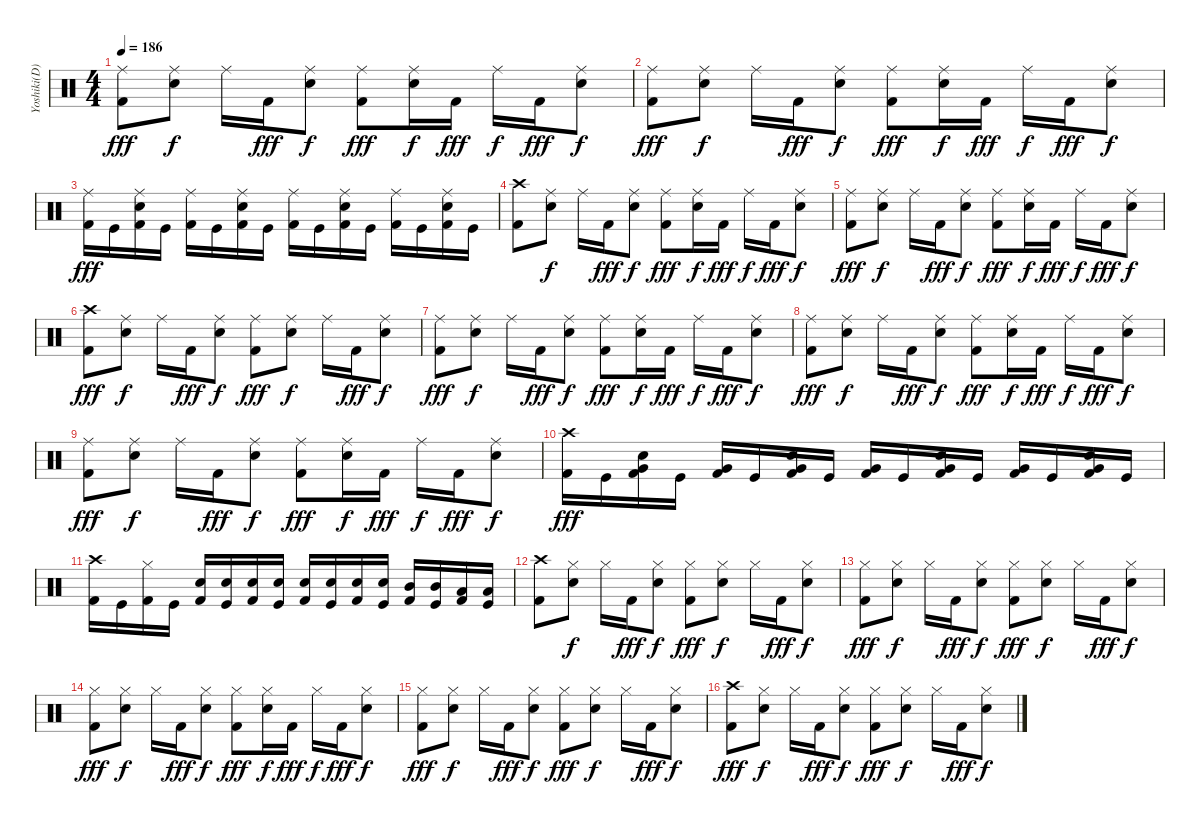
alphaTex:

\track ("Yoshiki(D)" "Yoshiki(D)") {instrument percussion}
\staff {score}
\articulation defaults
\ts (4 4)
\tempo 186
\clef neutral
\ks c
("Ride (middle)" "Kick (hit) 2").8{dy fff} ("Ride (middle)" "Electric Snare (hit)").8{dy f} "Ride (middle)".16 "Kick (hit) 2".16{dy fff} ("Ride (middle)" "Electric Snare (hit)").8{dy f} ("Ride (middle)" "Kick (hit) 2").8{dy fff} ("Ride (middle)" "Electric Snare (hit)").16{dy f} "Kick (hit) 2".16{dy fff} "Ride (middle)".16{dy f} "Kick (hit) 2".16{dy fff} ("Ride (middle)" "Electric Snare (hit)").8{dy f} |
("Ride (middle)" "Kick (hit) 2").8{dy fff} ("Ride (middle)" "Electric Snare (hit)").8{dy f} "Ride (middle)".16 "Kick (hit) 2".16{dy fff} ("Ride (middle)" "Electric Snare (hit)").8{dy f} ("Ride (middle)" "Kick (hit) 2").8{dy fff} ("Ride (middle)" "Electric Snare (hit)").16{dy f} "Kick (hit) 2".16{dy fff} "Ride (middle)".16{dy f} "Kick (hit) 2".16{dy fff} ("Ride (middle)" "Electric Snare (hit)").8{dy f} |
("Ride (middle)" "Kick (hit) 2").16{dy fff} "Kick (hit)".16 ("Ride (middle)" "Electric Snare (hit)" "Kick (hit) 2").16 "Kick (hit)".16 ("Ride (middle)" "Kick (hit) 2").16 "Kick (hit)".16 ("Ride (middle)" "Electric Snare (hit)" "Kick (hit) 2").16 "Kick (hit)".16 ("Ride (middle)" "Kick (hit) 2").16 "Kick (hit)".16 ("Ride (middle)" "Electric Snare (hit)" "Kick (hit) 2").16 "Kick (hit)".16 ("Ride (middle)" "Kick (hit) 2").16 "Kick (hit)".16 ("Ride (middle)" "Electric Snare (hit)" "Kick (hit) 2").16 "Kick (hit)".16 |
("Crash high (hit)" "Kick (hit) 2").8 ("Ride (middle)" "Electric Snare (hit)").8{dy f} "Ride (middle)".16 "Kick (hit) 2".16{dy fff} ("Ride (middle)" "Electric Snare (hit)").8{dy f} ("Ride (middle)" "Kick (hit) 2").8{dy fff} ("Ride (middle)" "Electric Snare (hit)").16{dy f} "Kick (hit) 2".16{dy fff} "Ride (middle)".16{dy f} "Kick (hit) 2".16{dy fff} ("Ride (middle)" "Electric Snare (hit)").8{dy f} |
("Ride (middle)" "Kick (hit) 2").8{dy fff} ("Ride (middle)" "Electric Snare (hit)").8{dy f} "Ride (middle)".16 "Kick (hit) 2".16{dy fff} ("Ride (middle)" "Electric Snare (hit)").8{dy f} ("Ride (middle)" "Kick (hit) 2").8{dy fff} ("Ride (middle)" "Electric Snare (hit)").16{dy f} "Kick (hit) 2".16{dy fff} "Ride (middle)".16{dy f} "Kick (hit) 2".16{dy fff} ("Ride (middle)" "Electric Snare (hit)").8{dy f} |
("Crash high (hit)" "Kick (hit) 2").8{dy fff} ("Ride (middle)" "Electric Snare (hit)").8{dy f} "Ride (middle)".16 "Kick (hit) 2".16{dy fff} ("Ride (middle)" "Electric Snare (hit)").8{dy f} ("Ride (middle)" "Kick (hit) 2").8{dy fff} ("Ride (middle)" "Electric Snare (hit)").8{dy f} "Ride (middle)".16 "Kick (hit) 2".16{dy fff} ("Ride (middle)" "Electric Snare (hit)").8{dy f} |
("Ride (middle)" "Kick (hit) 2").8{dy fff} ("Ride (middle)" "Electric Snare (hit)").8{dy f} "Ride (middle)".16 "Kick (hit) 2".16{dy fff} ("Ride (middle)" "Electric Snare (hit)").8{dy f} ("Ride (middle)" "Kick (hit) 2").8{dy fff} ("Ride (middle)" "Electric Snare (hit)").16{dy f} "Kick (hit) 2".16{dy fff} "Ride (middle)".16{dy f} "Kick (hit) 2".16{dy fff} ("Ride (middle)" "Electric Snare (hit)").8{dy f} |
("Ride (middle)" "Kick (hit) 2").8{dy fff} ("Ride (middle)" "Electric Snare (hit)").8{dy f} "Ride (middle)".16 "Kick (hit) 2".16{dy fff} ("Ride (middle)" "Electric Snare (hit)").8{dy f} ("Ride (middle)" "Kick (hit) 2").8{dy fff} ("Ride (middle)" "Electric Snare (hit)").16{dy f} "Kick (hit) 2".16{dy fff} "Ride (middle)".16{dy f} "Kick (hit) 2".16{dy fff} ("Ride (middle)" "Electric Snare (hit)").8{dy f} |
("Ride (middle)" "Kick (hit) 2").8{dy fff} ("Ride (middle)" "Electric Snare (hit)").8{dy f} "Ride (middle)".16 "Kick (hit) 2".16{dy fff} ("Ride (middle)" "Electric Snare (hit)").8{dy f} ("Ride (middle)" "Kick (hit) 2").8{dy fff} ("Ride (middle)" "Electric Snare (hit)").16{dy f} "Kick (hit) 2".16{dy fff} "Ride (middle)".16{dy f} "Kick (hit) 2".16{dy fff} ("Ride (middle)" "Electric Snare (hit)").8{dy f} |
("Crash high (hit)" "Kick (hit) 2").16{dy fff} "Kick (hit)".16 ("Very Low Tom (hit)" "Electric Snare (hit)" "Kick (hit) 2").16 "Kick (hit)".16 ("Very Low Tom (hit)" "Kick (hit) 2").16 "Kick (hit)".16 ("Very Low Tom (hit)" "Electric Snare (hit)" "Kick (hit) 2").16 "Kick (hit)".16 ("Very Low Tom (hit)" "Kick (hit) 2").16 "Kick (hit)".16 ("Very Low Tom (hit)" "Electric Snare (hit)" "Kick (hit) 2").16 "Kick (hit)".16 ("Very Low Tom (hit)" "Kick (hit) 2").16 "Kick (hit)".16 ("Very Low Tom (hit)" "Electric Snare (hit)" "Kick (hit) 2").16 "Kick (hit)".16 |
("Crash high (hit)" "Kick (hit) 2").16 "Kick (hit)".16 ("Hi-Hat (closed)" "Kick (hit) 2").16 "Kick (hit)".16 ("Electric Snare (hit)" "Kick (hit) 2").16 ("Electric Snare (hit)" "Kick (hit)").16 ("Electric Snare (hit)" "Kick (hit) 2").16 ("Electric Snare (hit)" "Kick (hit)").16 ("Electric Snare (hit)" "Kick (hit) 2").16 ("Electric Snare (hit)" "Kick (hit)").16 ("Electric Snare (hit)" "Kick (hit) 2").16 ("Electric Snare (hit)" "Kick (hit)").16 ("Mid Tom (hit)" "Kick (hit) 2").16 ("Mid Tom (hit)" "Kick (hit)").16 ("Low Tom (hit)" "Kick (hit) 2").16 ("Low Tom (hit)" "Kick (hit)").16 |
("Crash high (hit)" "Kick (hit) 2").8 ("Hi-Hat (closed)" "Electric Snare (hit)").8{dy f} "Hi-Hat (closed)".16 "Kick (hit) 2".16{dy fff} ("Hi-Hat (closed)" "Electric Snare (hit)").8{dy f} ("Hi-Hat (closed)" "Kick (hit) 2").8{dy fff} ("Hi-Hat (closed)" "Electric Snare (hit)").8{dy f} "Hi-Hat (closed)".16 "Kick (hit) 2".16{dy fff} ("Hi-Hat (closed)" "Electric Snare (hit)").8{dy f} |
("Hi-Hat (closed)" "Kick (hit) 2").8{dy fff} ("Hi-Hat (closed)" "Electric Snare (hit)").8{dy f} "Hi-Hat (closed)".16 "Kick (hit) 2".16{dy fff} ("Hi-Hat (closed)" "Electric Snare (hit)").8{dy f} ("Hi-Hat (closed)" "Kick (hit) 2").8{dy fff} ("Hi-Hat (closed)" "Electric Snare (hit)").8{dy f} "Hi-Hat (closed)".16 "Kick (hit) 2".16{dy fff} ("Hi-Hat (closed)" "Electric Snare (hit)").8{dy f} |
("Hi-Hat (closed)" "Kick (hit) 2").8{dy fff} ("Hi-Hat (closed)" "Electric Snare (hit)").8{dy f} "Hi-Hat (closed)".16 "Kick (hit) 2".16{dy fff} ("Hi-Hat (closed)" "Electric Snare (hit)").8{dy f} ("Hi-Hat (closed)" "Kick (hit) 2").8{dy fff} ("Hi-Hat (closed)" "Electric Snare (hit)").16{dy f} "Kick (hit) 2".16{dy fff} "Hi-Hat (closed)".16{dy f} "Kick (hit) 2".16{dy fff} ("Hi-Hat (closed)" "Electric Snare (hit)").8{dy f} |
("Hi-Hat (closed)" "Kick (hit) 2").8{dy fff} ("Hi-Hat (closed)" "Electric Snare (hit)").8{dy f} "Hi-Hat (closed)".16 "Kick (hit) 2".16{dy fff} ("Hi-Hat (closed)" "Electric Snare (hit)").8{dy f} ("Hi-Hat (closed)" "Kick (hit) 2").8{dy fff} ("Hi-Hat (closed)" "Electric Snare (hit)").8{dy f} "Hi-Hat (closed)".16 "Kick (hit) 2".16{dy fff} ("Hi-Hat (closed)" "Electric Snare (hit)").8{dy f} |
("Crash high (hit)" "Kick (hit) 2").8{dy fff} ("Hi-Hat (closed)" "Electric Snare (hit)").8{dy f} "Hi-Hat (closed)".16 "Kick (hit) 2".16{dy fff} ("Hi-Hat (closed)" "Electric Snare (hit)").8{dy f} ("Hi-Hat (closed)" "Kick (hit) 2").8{dy fff} ("Hi-Hat (closed)" "Electric Snare (hit)").8{dy f} "Hi-Hat (closed)".16 "Kick (hit) 2".16{dy fff} ("Hi-Hat (closed)" "Electric Snare (hit)").8{dy f}
